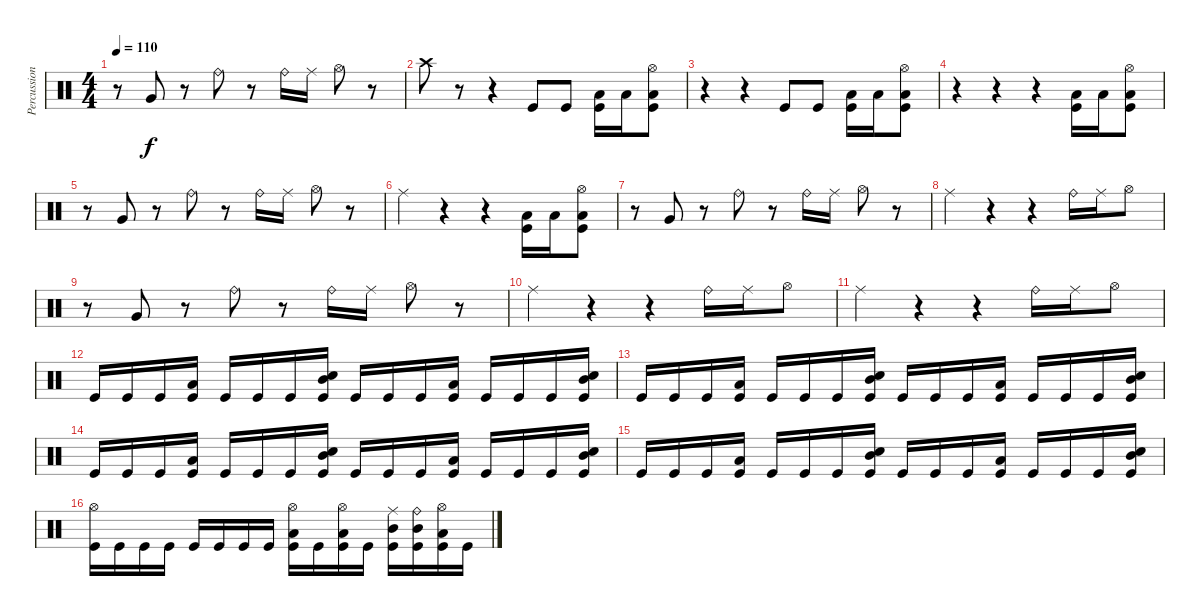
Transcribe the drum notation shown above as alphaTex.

\track ("Percussion" "Percussion") {instrument percussion}
\staff {score}
\articulation defaults
\ts (4 4)
\tempo 110
\clef neutral
\ks c
r.8{dy f} "Very Low Tom (hit)".8 r.8 "Ride (bell)".8 r.8 "Ride (bell)".16 "Ride (middle)".16 "Hi-Hat (open)".8 r.8 |
"Crash high (hit)".8 r.8 r.4 "Kick (hit)".8 "Kick (hit)".8 ("Low Tom (hit)" "Kick (hit)").16 "Low Tom (hit)".16 ("Hi-Hat (open)" "Low Tom (hit)" "Kick (hit)").8 |
r.4 r.4 "Kick (hit)".8 "Kick (hit)".8 ("Low Tom (hit)" "Kick (hit)").16 "Low Tom (hit)".16 ("Hi-Hat (open)" "Low Tom (hit)" "Kick (hit)").8 |
r.4 r.4 r.4 ("Low Tom (hit)" "Kick (hit)").16 "Low Tom (hit)".16 ("Hi-Hat (open)" "Low Tom (hit)" "Kick (hit)").8 |
r.8 "Very Low Tom (hit)".8 r.8 "Ride (bell)".8 r.8 "Ride (bell)".16 "Ride (middle)".16 "Hi-Hat (open)".8 r.8 |
"Ride (middle)".4 r.4 r.4 ("Low Tom (hit)" "Kick (hit)").16 "Low Tom (hit)".16 ("Hi-Hat (open)" "Low Tom (hit)" "Kick (hit)").8 |
r.8 "Very Low Tom (hit)".8 r.8 "Ride (bell)".8 r.8 "Ride (bell)".16 "Ride (middle)".16 "Hi-Hat (open)".8 r.8 |
"Ride (middle)".4 r.4 r.4 "Ride (bell)".16 "Ride (middle)".16 "Hi-Hat (open)".8 |
r.8 "Very Low Tom (hit)".8 r.8 "Ride (bell)".8 r.8 "Ride (bell)".16 "Ride (middle)".16 "Hi-Hat (open)".8 r.8 |
"Ride (middle)".4 r.4 r.4 "Ride (bell)".16 "Ride (middle)".16 "Hi-Hat (open)".8 |
"Ride (middle)".4 r.4 r.4 "Ride (bell)".16 "Ride (middle)".16 "Hi-Hat (open)".8 |
"Kick (hit)".16 "Kick (hit)".16 "Kick (hit)".16 ("Low Tom (hit)" "Kick (hit)").16 "Kick (hit)".16 "Kick (hit)".16 "Kick (hit)".16 ("Mid Tom (hit)" "Electric Snare (hit)" "Kick (hit)").16 "Kick (hit)".16 "Kick (hit)".16 "Kick (hit)".16 ("Low Tom (hit)" "Kick (hit)").16 "Kick (hit)".16 "Kick (hit)".16 "Kick (hit)".16 ("Mid Tom (hit)" "Electric Snare (hit)" "Kick (hit)").16 |
"Kick (hit)".16 "Kick (hit)".16 "Kick (hit)".16 ("Low Tom (hit)" "Kick (hit)").16 "Kick (hit)".16 "Kick (hit)".16 "Kick (hit)".16 ("Mid Tom (hit)" "Electric Snare (hit)" "Kick (hit)").16 "Kick (hit)".16 "Kick (hit)".16 "Kick (hit)".16 ("Low Tom (hit)" "Kick (hit)").16 "Kick (hit)".16 "Kick (hit)".16 "Kick (hit)".16 ("Mid Tom (hit)" "Electric Snare (hit)" "Kick (hit)").16 |
"Kick (hit)".16 "Kick (hit)".16 "Kick (hit)".16 ("Low Tom (hit)" "Kick (hit)").16 "Kick (hit)".16 "Kick (hit)".16 "Kick (hit)".16 ("Mid Tom (hit)" "Electric Snare (hit)" "Kick (hit)").16 "Kick (hit)".16 "Kick (hit)".16 "Kick (hit)".16 ("Low Tom (hit)" "Kick (hit)").16 "Kick (hit)".16 "Kick (hit)".16 "Kick (hit)".16 ("Mid Tom (hit)" "Electric Snare (hit)" "Kick (hit)").16 |
"Kick (hit)".16 "Kick (hit)".16 "Kick (hit)".16 ("Low Tom (hit)" "Kick (hit)").16 "Kick (hit)".16 "Kick (hit)".16 "Kick (hit)".16 ("Mid Tom (hit)" "Electric Snare (hit)" "Kick (hit)").16 "Kick (hit)".16 "Kick (hit)".16 "Kick (hit)".16 ("Low Tom (hit)" "Kick (hit)").16 "Kick (hit)".16 "Kick (hit)".16 "Kick (hit)".16 ("Mid Tom (hit)" "Electric Snare (hit)" "Kick (hit)").16 |
("Hi-Hat (open)" "Kick (hit)").16 "Kick (hit)".16 "Kick (hit)".16 "Kick (hit)".16 "Kick (hit)".16 "Kick (hit)".16 "Kick (hit)".16 "Kick (hit)".16 ("Hi-Hat (open)" "Low Tom (hit)" "Kick (hit)").16 "Kick (hit)".16 ("Hi-Hat (open)" "Low Tom (hit)" "Kick (hit)").16 "Kick (hit)".16 ("Ride (middle)" "Mid Tom (hit)" "Kick (hit)").16 ("Ride (bell)" "Mid Tom (hit)" "Kick (hit)").16 ("Hi-Hat (open)" "Low Tom (hit)" "Kick (hit)").16 "Kick (hit)".16
